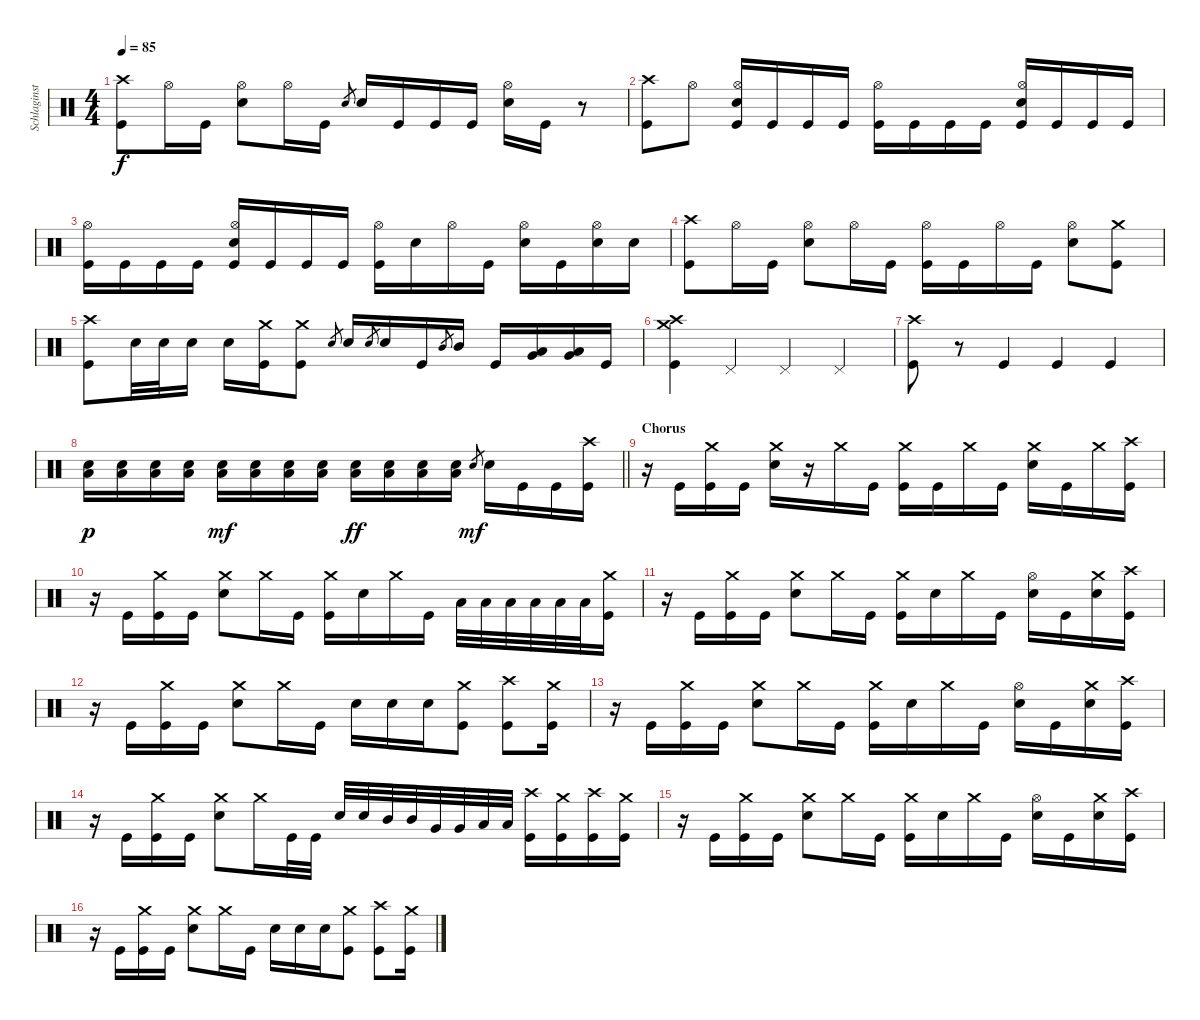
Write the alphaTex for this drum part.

\track ("Schlaginstrumente - Auswahl" "Schlaginst") {instrument percussion}
\staff {score}
\articulation defaults
\ts (4 4)
\tempo 85
\clef neutral
\ks c
("Crash high (hit)" "Kick (hit)").8{dy f} "Hi-Hat (open)".16 "Kick (hit)".16 ("Hi-Hat (open)" "Snare (hit) 2").8 "Hi-Hat (open)".16 "Kick (hit)".16 "Snare (hit) 2".8{gr} "Snare (hit) 2".16 "Kick (hit)".16 "Kick (hit)".16 "Kick (hit)".16 ("Hi-Hat (open)" "Snare (hit) 2").16 "Kick (hit)".16 r.8{volume 1} |
("Crash high (hit)" "Kick (hit)").8{volume 13} "Hi-Hat (open)".8 ("Hi-Hat (open)" "Snare (hit) 2" "Kick (hit)").16 "Kick (hit)".16 "Kick (hit)".16 "Kick (hit)".16 ("Hi-Hat (open)" "Kick (hit)").16 "Kick (hit)".16 "Kick (hit)".16 "Kick (hit)".16 ("Hi-Hat (open)" "Snare (hit) 2" "Kick (hit)").16 "Kick (hit)".16 "Kick (hit)".16 "Kick (hit)".16 |
("Hi-Hat (open)" "Kick (hit)").16 "Kick (hit)".16 "Kick (hit)".16 "Kick (hit)".16 ("Hi-Hat (open)" "Snare (hit) 2" "Kick (hit)").16 "Kick (hit)".16 "Kick (hit)".16 "Kick (hit)".16 ("Hi-Hat (open)" "Kick (hit)").16 "Snare (hit) 2".16 "Hi-Hat (open)".16 "Kick (hit)".16 ("Hi-Hat (open)" "Snare (hit) 2").16 "Kick (hit)".16 ("Hi-Hat (open)" "Snare (hit) 2").16 "Snare (hit) 2".16 |
("Crash high (hit)" "Kick (hit)").8 "Hi-Hat (open)".16 "Kick (hit)".16 ("Hi-Hat (open)" "Snare (hit) 2").8 "Hi-Hat (open)".16 "Kick (hit)".16 ("Hi-Hat (open)" "Kick (hit)").16 "Kick (hit)".16 "Hi-Hat (open)".16 "Kick (hit)".16 ("Hi-Hat (open)" "Snare (hit) 2").8 ("Crash medium (hit)" "Kick (hit)").8 |
("Crash high (hit)" "Kick (hit)").8 "Snare (hit) 2".32 "Snare (hit) 2".32 "Snare (hit) 2".16 "Snare (hit) 2".16 ("Crash medium (hit)" "Kick (hit)").16 ("Crash medium (hit)" "Kick (hit)").8 "Snare (hit) 2".8{gr} "Snare (hit) 2".16 "Snare (hit) 2".8{gr} "Snare (hit) 2".16 "Kick (hit)".16 "Mid Tom (hit)".8{gr} "Mid Tom (hit)".16 "Kick (hit)".16 ("Very Low Tom (hit)" "Low Floor Tom (hit)").16 ("Very Low Tom (hit)" "Low Floor Tom (hit)").16 "Kick (hit)".16 |
("Crash medium (hit)" "Crash high (hit)" "Kick (hit)").4 "Pedal Hi-Hat (hit)".4 "Pedal Hi-Hat (hit)".4 "Pedal Hi-Hat (hit)".4 |
("Crash high (hit)" "Kick (hit)").8 r.8 "Kick (hit)".4 "Kick (hit)".4 "Kick (hit)".4 |
\barLineRight lightlight
("Snare (hit) 2" "Low Floor Tom (hit)").16{dy p} ("Snare (hit) 2" "Low Floor Tom (hit)").16 ("Snare (hit) 2" "Low Floor Tom (hit)").16 ("Snare (hit) 2" "Low Floor Tom (hit)").16 ("Snare (hit) 2" "Low Floor Tom (hit)").16{dy mf} ("Snare (hit) 2" "Low Floor Tom (hit)").16 ("Snare (hit) 2" "Low Floor Tom (hit)").16 ("Snare (hit) 2" "Low Floor Tom (hit)").16 ("Snare (hit) 2" "Low Floor Tom (hit)").16{dy ff} ("Snare (hit) 2" "Low Floor Tom (hit)").16 ("Snare (hit) 2" "Low Floor Tom (hit)").16 ("Snare (hit) 2" "Low Floor Tom (hit)").16 "Snare (hit) 2".8{gr dy mf} "Snare (hit) 2".16 "Kick (hit)".16 "Kick (hit)".16 ("Crash high (hit)" "Kick (hit)").16 |
\section ("" "Chorus")
r.16 "Kick (hit)".16 ("Crash medium (hit)" "Kick (hit)").16 "Kick (hit)".16 ("Crash medium (hit)" "Snare (hit) 2").16 r.16 "Crash medium (hit)".16 "Kick (hit)".16 ("Crash medium (hit)" "Kick (hit)").16 "Kick (hit)".16 "Crash medium (hit)".16 "Kick (hit)".16 ("Crash medium (hit)" "Snare (hit) 2").16 "Kick (hit)".16 "Crash medium (hit)".16 ("Crash high (hit)" "Kick (hit)").16 |
r.16 "Kick (hit)".16 ("Crash medium (hit)" "Kick (hit)").16 "Kick (hit)".16 ("Crash medium (hit)" "Snare (hit) 2").8 "Crash medium (hit)".16 "Kick (hit)".16 ("Crash medium (hit)" "Kick (hit)").16 "Snare (hit) 2".16 "Crash medium (hit)".16 "Kick (hit)".16 "Low Floor Tom (hit)".32 "Low Floor Tom (hit)".32 "Low Floor Tom (hit)".32 "Low Floor Tom (hit)".32 "Low Floor Tom (hit)".32 "Low Floor Tom (hit)".32 ("Crash medium (hit)" "Kick (hit)").16 |
r.16 "Kick (hit)".16 ("Crash medium (hit)" "Kick (hit)").16 "Kick (hit)".16 ("Crash medium (hit)" "Snare (hit) 2").8 "Crash medium (hit)".16 "Kick (hit)".16 ("Crash medium (hit)" "Kick (hit)").16 "Snare (hit) 2".16 "Crash medium (hit)".16 "Kick (hit)".16 ("Hi-Hat (open)" "Snare (hit) 2").16 "Kick (hit)".16 ("Crash medium (hit)" "Snare (hit) 2").16 ("Crash high (hit)" "Kick (hit)").16 |
r.16 "Kick (hit)".16 ("Crash medium (hit)" "Kick (hit)").16 "Kick (hit)".16 ("Crash medium (hit)" "Snare (hit) 2").8 "Crash medium (hit)".16 "Kick (hit)".16 "Snare (hit) 2".16 "Snare (hit) 2".16 "Snare (hit) 2".16 ("Crash medium (hit)" "Kick (hit)").8 ("Crash high (hit)" "Kick (hit)").8 ("Crash medium (hit)" "Kick (hit)").16 |
r.16 "Kick (hit)".16 ("Crash medium (hit)" "Kick (hit)").16 "Kick (hit)".16 ("Crash medium (hit)" "Snare (hit) 2").8 "Crash medium (hit)".16 "Kick (hit)".16 ("Crash medium (hit)" "Kick (hit)").16 "Snare (hit) 2".16 "Crash medium (hit)".16 "Kick (hit)".16 ("Hi-Hat (open)" "Snare (hit) 2").16 "Kick (hit)".16 ("Crash medium (hit)" "Snare (hit) 2").16 ("Crash high (hit)" "Kick (hit)").16 |
r.16 "Kick (hit)".16 ("Crash medium (hit)" "Kick (hit)").16 "Kick (hit)".16 ("Crash medium (hit)" "Snare (hit) 2").8 "Crash medium (hit)".16 "Kick (hit)".32 "Kick (hit)".32 "Snare (hit) 2".32 "Snare (hit) 2".32 "Mid Tom (hit)".32 "Mid Tom (hit)".32 "Very Low Tom (hit)".32 "Very Low Tom (hit)".32 "Low Floor Tom (hit)".32 "Low Floor Tom (hit)".32 ("Crash high (hit)" "Kick (hit)").16 ("Crash medium (hit)" "Kick (hit)").16 ("Crash high (hit)" "Kick (hit)").16 ("Crash medium (hit)" "Kick (hit)").16 |
r.16 "Kick (hit)".16 ("Crash medium (hit)" "Kick (hit)").16 "Kick (hit)".16 ("Crash medium (hit)" "Snare (hit) 2").8 "Crash medium (hit)".16 "Kick (hit)".16 ("Crash medium (hit)" "Kick (hit)").16 "Snare (hit) 2".16 "Crash medium (hit)".16 "Kick (hit)".16 ("Hi-Hat (open)" "Snare (hit) 2").16 "Kick (hit)".16 ("Crash medium (hit)" "Snare (hit) 2").16 ("Crash high (hit)" "Kick (hit)").16 |
r.16 "Kick (hit)".16 ("Crash medium (hit)" "Kick (hit)").16 "Kick (hit)".16 ("Crash medium (hit)" "Snare (hit) 2").8 "Crash medium (hit)".16 "Kick (hit)".16 "Snare (hit) 2".16 "Snare (hit) 2".16 "Snare (hit) 2".16 ("Crash medium (hit)" "Kick (hit)").8 ("Crash high (hit)" "Kick (hit)").8 ("Crash medium (hit)" "Kick (hit)").16
